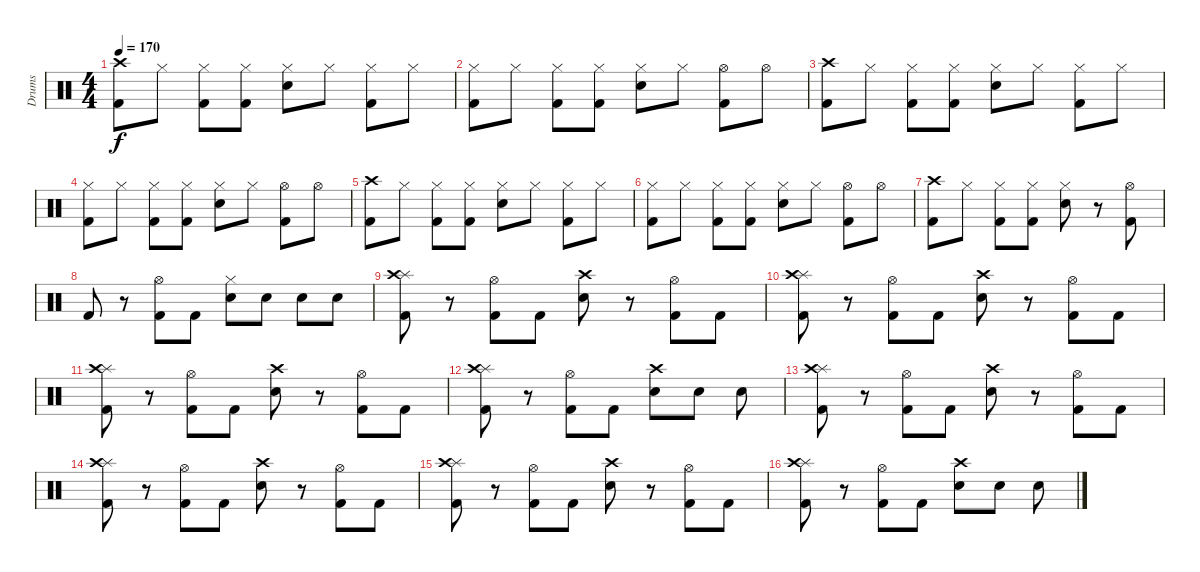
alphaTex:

\track ("Drums" "Drums") {instrument percussion}
\staff {score}
\articulation defaults
\ts (4 4)
\tempo 170
\clef neutral
\ks c
("Crash high (hit)" "Kick (hit) 2").8{dy f} "Hi-Hat (closed)".8 ("Hi-Hat (closed)" "Kick (hit) 2").8 ("Hi-Hat (closed)" "Kick (hit) 2").8 ("Hi-Hat (closed)" "Snare (hit) 2").8 "Hi-Hat (closed)".8 ("Hi-Hat (closed)" "Kick (hit) 2").8 "Hi-Hat (closed)".8 |
("Hi-Hat (closed)" "Kick (hit) 2").8 "Hi-Hat (closed)".8 ("Hi-Hat (closed)" "Kick (hit) 2").8 ("Hi-Hat (closed)" "Kick (hit) 2").8 ("Hi-Hat (closed)" "Snare (hit) 2").8 "Hi-Hat (closed)".8 ("Hi-Hat (open)" "Kick (hit) 2").8 "Hi-Hat (open)".8 |
("Crash high (hit)" "Kick (hit) 2").8 "Hi-Hat (closed)".8 ("Hi-Hat (closed)" "Kick (hit) 2").8 ("Hi-Hat (closed)" "Kick (hit) 2").8 ("Hi-Hat (closed)" "Snare (hit) 2").8 "Hi-Hat (closed)".8 ("Hi-Hat (closed)" "Kick (hit) 2").8 "Hi-Hat (closed)".8 |
("Hi-Hat (closed)" "Kick (hit) 2").8 "Hi-Hat (closed)".8 ("Hi-Hat (closed)" "Kick (hit) 2").8 ("Hi-Hat (closed)" "Kick (hit) 2").8 ("Hi-Hat (closed)" "Snare (hit) 2").8 "Hi-Hat (closed)".8 ("Hi-Hat (open)" "Kick (hit) 2").8 "Hi-Hat (open)".8 |
("Crash high (hit)" "Kick (hit) 2").8 "Hi-Hat (closed)".8 ("Hi-Hat (closed)" "Kick (hit) 2").8 ("Hi-Hat (closed)" "Kick (hit) 2").8 ("Hi-Hat (closed)" "Snare (hit) 2").8 "Hi-Hat (closed)".8 ("Hi-Hat (closed)" "Kick (hit) 2").8 "Hi-Hat (closed)".8 |
("Hi-Hat (closed)" "Kick (hit) 2").8 "Hi-Hat (closed)".8 ("Hi-Hat (closed)" "Kick (hit) 2").8 ("Hi-Hat (closed)" "Kick (hit) 2").8 ("Hi-Hat (closed)" "Snare (hit) 2").8 "Hi-Hat (closed)".8 ("Hi-Hat (open)" "Kick (hit) 2").8 "Hi-Hat (open)".8 |
("Crash high (hit)" "Kick (hit) 2").8 "Hi-Hat (closed)".8 ("Hi-Hat (closed)" "Kick (hit) 2").8 ("Hi-Hat (closed)" "Kick (hit) 2").8 ("Hi-Hat (closed)" "Snare (hit) 2").8 r.8 ("Hi-Hat (open)" "Kick (hit) 2").8 |
"Kick (hit) 2".8 r.8 ("Hi-Hat (open)" "Kick (hit) 2").8 "Kick (hit) 2".8 ("Hi-Hat (closed)" "Snare (hit) 2").8 "Snare (hit) 2".8 "Snare (hit) 2".8 "Snare (hit) 2".8 |
("Splash (hit)" "Crash high (hit)" "Kick (hit) 2").8 r.8 ("Hi-Hat (open)" "Kick (hit) 2").8 "Kick (hit) 2".8 ("Crash high (hit)" "Snare (hit) 2").8 r.8 ("Hi-Hat (open)" "Kick (hit) 2").8 "Kick (hit) 2".8 |
("Splash (hit)" "Crash high (hit)" "Kick (hit) 2").8 r.8 ("Hi-Hat (open)" "Kick (hit) 2").8 "Kick (hit) 2".8 ("Crash high (hit)" "Snare (hit) 2").8 r.8 ("Hi-Hat (open)" "Kick (hit) 2").8 "Kick (hit) 2".8 |
("Splash (hit)" "Crash high (hit)" "Kick (hit) 2").8 r.8 ("Hi-Hat (open)" "Kick (hit) 2").8 "Kick (hit) 2".8 ("Crash high (hit)" "Snare (hit) 2").8 r.8 ("Hi-Hat (open)" "Kick (hit) 2").8 "Kick (hit) 2".8 |
("Splash (hit)" "Crash high (hit)" "Kick (hit) 2").8 r.8 ("Hi-Hat (open)" "Kick (hit) 2").8 "Kick (hit) 2".8 ("Crash high (hit)" "Snare (hit) 2").8 "Snare (hit) 2".8 "Snare (hit) 2".8 |
("Splash (hit)" "Crash high (hit)" "Kick (hit) 2").8 r.8 ("Hi-Hat (open)" "Kick (hit) 2").8 "Kick (hit) 2".8 ("Crash high (hit)" "Snare (hit) 2").8 r.8 ("Hi-Hat (open)" "Kick (hit) 2").8 "Kick (hit) 2".8 |
("Splash (hit)" "Crash high (hit)" "Kick (hit) 2").8 r.8 ("Hi-Hat (open)" "Kick (hit) 2").8 "Kick (hit) 2".8 ("Crash high (hit)" "Snare (hit) 2").8 r.8 ("Hi-Hat (open)" "Kick (hit) 2").8 "Kick (hit) 2".8 |
("Splash (hit)" "Crash high (hit)" "Kick (hit) 2").8 r.8 ("Hi-Hat (open)" "Kick (hit) 2").8 "Kick (hit) 2".8 ("Crash high (hit)" "Snare (hit) 2").8 r.8 ("Hi-Hat (open)" "Kick (hit) 2").8 "Kick (hit) 2".8 |
("Splash (hit)" "Crash high (hit)" "Kick (hit) 2").8 r.8 ("Hi-Hat (open)" "Kick (hit) 2").8 "Kick (hit) 2".8 ("Crash high (hit)" "Snare (hit) 2").8 "Snare (hit) 2".8 "Snare (hit) 2".8
